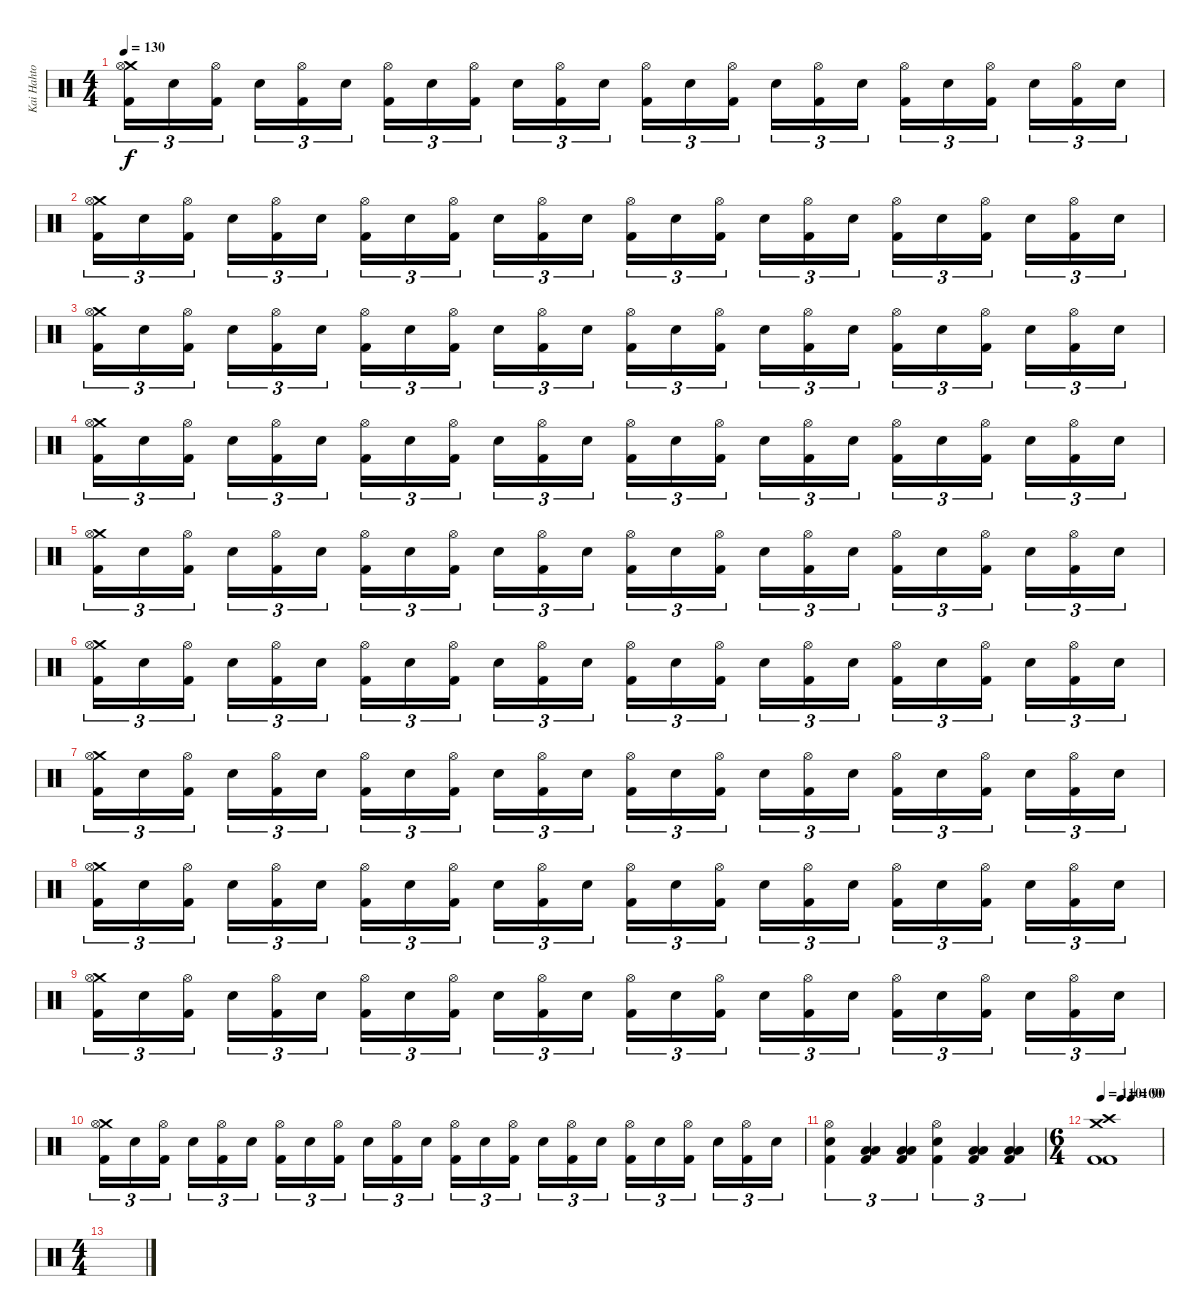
\track ("Kai Hahto" "Kai Hahto") {instrument percussion}
\staff {score}
\articulation defaults
\ts (4 4)
\tempo 130
\clef neutral
\ks c
("Crash medium (hit)" "Hi-Hat (open)" "Kick (hit) 2").16{tu (3 2) dy f} "Snare (hit) 2".16{tu (3 2)} ("Hi-Hat (open)" "Kick (hit) 2").16{tu (3 2) beam splitsecondary} "Snare (hit) 2".16{tu (3 2)} ("Hi-Hat (open)" "Kick (hit) 2").16{tu (3 2)} "Snare (hit) 2".16{tu (3 2)} ("Hi-Hat (open)" "Kick (hit) 2").16{tu (3 2)} "Snare (hit) 2".16{tu (3 2)} ("Hi-Hat (open)" "Kick (hit) 2").16{tu (3 2) beam splitsecondary} "Snare (hit) 2".16{tu (3 2)} ("Hi-Hat (open)" "Kick (hit) 2").16{tu (3 2)} "Snare (hit) 2".16{tu (3 2)} ("Hi-Hat (open)" "Kick (hit) 2").16{tu (3 2)} "Snare (hit) 2".16{tu (3 2)} ("Hi-Hat (open)" "Kick (hit) 2").16{tu (3 2) beam splitsecondary} "Snare (hit) 2".16{tu (3 2)} ("Hi-Hat (open)" "Kick (hit) 2").16{tu (3 2)} "Snare (hit) 2".16{tu (3 2)} ("Hi-Hat (open)" "Kick (hit) 2").16{tu (3 2)} "Snare (hit) 2".16{tu (3 2)} ("Hi-Hat (open)" "Kick (hit) 2").16{tu (3 2) beam splitsecondary} "Snare (hit) 2".16{tu (3 2)} ("Hi-Hat (open)" "Kick (hit) 2").16{tu (3 2)} "Snare (hit) 2".16{tu (3 2)} |
("Crash medium (hit)" "Hi-Hat (open)" "Kick (hit) 2").16{tu (3 2)} "Snare (hit) 2".16{tu (3 2)} ("Hi-Hat (open)" "Kick (hit) 2").16{tu (3 2) beam splitsecondary} "Snare (hit) 2".16{tu (3 2)} ("Hi-Hat (open)" "Kick (hit) 2").16{tu (3 2)} "Snare (hit) 2".16{tu (3 2)} ("Hi-Hat (open)" "Kick (hit) 2").16{tu (3 2)} "Snare (hit) 2".16{tu (3 2)} ("Hi-Hat (open)" "Kick (hit) 2").16{tu (3 2) beam splitsecondary} "Snare (hit) 2".16{tu (3 2)} ("Hi-Hat (open)" "Kick (hit) 2").16{tu (3 2)} "Snare (hit) 2".16{tu (3 2)} ("Hi-Hat (open)" "Kick (hit) 2").16{tu (3 2)} "Snare (hit) 2".16{tu (3 2)} ("Hi-Hat (open)" "Kick (hit) 2").16{tu (3 2) beam splitsecondary} "Snare (hit) 2".16{tu (3 2)} ("Hi-Hat (open)" "Kick (hit) 2").16{tu (3 2)} "Snare (hit) 2".16{tu (3 2)} ("Hi-Hat (open)" "Kick (hit) 2").16{tu (3 2)} "Snare (hit) 2".16{tu (3 2)} ("Hi-Hat (open)" "Kick (hit) 2").16{tu (3 2) beam splitsecondary} "Snare (hit) 2".16{tu (3 2)} ("Hi-Hat (open)" "Kick (hit) 2").16{tu (3 2)} "Snare (hit) 2".16{tu (3 2)} |
("Crash medium (hit)" "Hi-Hat (open)" "Kick (hit) 2").16{tu (3 2)} "Snare (hit) 2".16{tu (3 2)} ("Hi-Hat (open)" "Kick (hit) 2").16{tu (3 2) beam splitsecondary} "Snare (hit) 2".16{tu (3 2)} ("Hi-Hat (open)" "Kick (hit) 2").16{tu (3 2)} "Snare (hit) 2".16{tu (3 2)} ("Hi-Hat (open)" "Kick (hit) 2").16{tu (3 2)} "Snare (hit) 2".16{tu (3 2)} ("Hi-Hat (open)" "Kick (hit) 2").16{tu (3 2) beam splitsecondary} "Snare (hit) 2".16{tu (3 2)} ("Hi-Hat (open)" "Kick (hit) 2").16{tu (3 2)} "Snare (hit) 2".16{tu (3 2)} ("Hi-Hat (open)" "Kick (hit) 2").16{tu (3 2)} "Snare (hit) 2".16{tu (3 2)} ("Hi-Hat (open)" "Kick (hit) 2").16{tu (3 2) beam splitsecondary} "Snare (hit) 2".16{tu (3 2)} ("Hi-Hat (open)" "Kick (hit) 2").16{tu (3 2)} "Snare (hit) 2".16{tu (3 2)} ("Hi-Hat (open)" "Kick (hit) 2").16{tu (3 2)} "Snare (hit) 2".16{tu (3 2)} ("Hi-Hat (open)" "Kick (hit) 2").16{tu (3 2) beam splitsecondary} "Snare (hit) 2".16{tu (3 2)} ("Hi-Hat (open)" "Kick (hit) 2").16{tu (3 2)} "Snare (hit) 2".16{tu (3 2)} |
("Crash medium (hit)" "Hi-Hat (open)" "Kick (hit) 2").16{tu (3 2)} "Snare (hit) 2".16{tu (3 2)} ("Hi-Hat (open)" "Kick (hit) 2").16{tu (3 2) beam splitsecondary} "Snare (hit) 2".16{tu (3 2)} ("Hi-Hat (open)" "Kick (hit) 2").16{tu (3 2)} "Snare (hit) 2".16{tu (3 2)} ("Hi-Hat (open)" "Kick (hit) 2").16{tu (3 2)} "Snare (hit) 2".16{tu (3 2)} ("Hi-Hat (open)" "Kick (hit) 2").16{tu (3 2) beam splitsecondary} "Snare (hit) 2".16{tu (3 2)} ("Hi-Hat (open)" "Kick (hit) 2").16{tu (3 2)} "Snare (hit) 2".16{tu (3 2)} ("Hi-Hat (open)" "Kick (hit) 2").16{tu (3 2)} "Snare (hit) 2".16{tu (3 2)} ("Hi-Hat (open)" "Kick (hit) 2").16{tu (3 2) beam splitsecondary} "Snare (hit) 2".16{tu (3 2)} ("Hi-Hat (open)" "Kick (hit) 2").16{tu (3 2)} "Snare (hit) 2".16{tu (3 2)} ("Hi-Hat (open)" "Kick (hit) 2").16{tu (3 2)} "Snare (hit) 2".16{tu (3 2)} ("Hi-Hat (open)" "Kick (hit) 2").16{tu (3 2) beam splitsecondary} "Snare (hit) 2".16{tu (3 2)} ("Hi-Hat (open)" "Kick (hit) 2").16{tu (3 2)} "Snare (hit) 2".16{tu (3 2)} |
("Crash medium (hit)" "Hi-Hat (open)" "Kick (hit) 2").16{tu (3 2)} "Snare (hit) 2".16{tu (3 2)} ("Hi-Hat (open)" "Kick (hit) 2").16{tu (3 2) beam splitsecondary} "Snare (hit) 2".16{tu (3 2)} ("Hi-Hat (open)" "Kick (hit) 2").16{tu (3 2)} "Snare (hit) 2".16{tu (3 2)} ("Hi-Hat (open)" "Kick (hit) 2").16{tu (3 2)} "Snare (hit) 2".16{tu (3 2)} ("Hi-Hat (open)" "Kick (hit) 2").16{tu (3 2) beam splitsecondary} "Snare (hit) 2".16{tu (3 2)} ("Hi-Hat (open)" "Kick (hit) 2").16{tu (3 2)} "Snare (hit) 2".16{tu (3 2)} ("Hi-Hat (open)" "Kick (hit) 2").16{tu (3 2)} "Snare (hit) 2".16{tu (3 2)} ("Hi-Hat (open)" "Kick (hit) 2").16{tu (3 2) beam splitsecondary} "Snare (hit) 2".16{tu (3 2)} ("Hi-Hat (open)" "Kick (hit) 2").16{tu (3 2)} "Snare (hit) 2".16{tu (3 2)} ("Hi-Hat (open)" "Kick (hit) 2").16{tu (3 2)} "Snare (hit) 2".16{tu (3 2)} ("Hi-Hat (open)" "Kick (hit) 2").16{tu (3 2) beam splitsecondary} "Snare (hit) 2".16{tu (3 2)} ("Hi-Hat (open)" "Kick (hit) 2").16{tu (3 2)} "Snare (hit) 2".16{tu (3 2)} |
("Crash medium (hit)" "Hi-Hat (open)" "Kick (hit) 2").16{tu (3 2)} "Snare (hit) 2".16{tu (3 2)} ("Hi-Hat (open)" "Kick (hit) 2").16{tu (3 2) beam splitsecondary} "Snare (hit) 2".16{tu (3 2)} ("Hi-Hat (open)" "Kick (hit) 2").16{tu (3 2)} "Snare (hit) 2".16{tu (3 2)} ("Hi-Hat (open)" "Kick (hit) 2").16{tu (3 2)} "Snare (hit) 2".16{tu (3 2)} ("Hi-Hat (open)" "Kick (hit) 2").16{tu (3 2) beam splitsecondary} "Snare (hit) 2".16{tu (3 2)} ("Hi-Hat (open)" "Kick (hit) 2").16{tu (3 2)} "Snare (hit) 2".16{tu (3 2)} ("Hi-Hat (open)" "Kick (hit) 2").16{tu (3 2)} "Snare (hit) 2".16{tu (3 2)} ("Hi-Hat (open)" "Kick (hit) 2").16{tu (3 2) beam splitsecondary} "Snare (hit) 2".16{tu (3 2)} ("Hi-Hat (open)" "Kick (hit) 2").16{tu (3 2)} "Snare (hit) 2".16{tu (3 2)} ("Hi-Hat (open)" "Kick (hit) 2").16{tu (3 2)} "Snare (hit) 2".16{tu (3 2)} ("Hi-Hat (open)" "Kick (hit) 2").16{tu (3 2) beam splitsecondary} "Snare (hit) 2".16{tu (3 2)} ("Hi-Hat (open)" "Kick (hit) 2").16{tu (3 2)} "Snare (hit) 2".16{tu (3 2)} |
("Crash medium (hit)" "Hi-Hat (open)" "Kick (hit) 2").16{tu (3 2)} "Snare (hit) 2".16{tu (3 2)} ("Hi-Hat (open)" "Kick (hit) 2").16{tu (3 2) beam splitsecondary} "Snare (hit) 2".16{tu (3 2)} ("Hi-Hat (open)" "Kick (hit) 2").16{tu (3 2)} "Snare (hit) 2".16{tu (3 2)} ("Hi-Hat (open)" "Kick (hit) 2").16{tu (3 2)} "Snare (hit) 2".16{tu (3 2)} ("Hi-Hat (open)" "Kick (hit) 2").16{tu (3 2) beam splitsecondary} "Snare (hit) 2".16{tu (3 2)} ("Hi-Hat (open)" "Kick (hit) 2").16{tu (3 2)} "Snare (hit) 2".16{tu (3 2)} ("Hi-Hat (open)" "Kick (hit) 2").16{tu (3 2)} "Snare (hit) 2".16{tu (3 2)} ("Hi-Hat (open)" "Kick (hit) 2").16{tu (3 2) beam splitsecondary} "Snare (hit) 2".16{tu (3 2)} ("Hi-Hat (open)" "Kick (hit) 2").16{tu (3 2)} "Snare (hit) 2".16{tu (3 2)} ("Hi-Hat (open)" "Kick (hit) 2").16{tu (3 2)} "Snare (hit) 2".16{tu (3 2)} ("Hi-Hat (open)" "Kick (hit) 2").16{tu (3 2) beam splitsecondary} "Snare (hit) 2".16{tu (3 2)} ("Hi-Hat (open)" "Kick (hit) 2").16{tu (3 2)} "Snare (hit) 2".16{tu (3 2)} |
("Crash medium (hit)" "Hi-Hat (open)" "Kick (hit) 2").16{tu (3 2)} "Snare (hit) 2".16{tu (3 2)} ("Hi-Hat (open)" "Kick (hit) 2").16{tu (3 2) beam splitsecondary} "Snare (hit) 2".16{tu (3 2)} ("Hi-Hat (open)" "Kick (hit) 2").16{tu (3 2)} "Snare (hit) 2".16{tu (3 2)} ("Hi-Hat (open)" "Kick (hit) 2").16{tu (3 2)} "Snare (hit) 2".16{tu (3 2)} ("Hi-Hat (open)" "Kick (hit) 2").16{tu (3 2) beam splitsecondary} "Snare (hit) 2".16{tu (3 2)} ("Hi-Hat (open)" "Kick (hit) 2").16{tu (3 2)} "Snare (hit) 2".16{tu (3 2)} ("Hi-Hat (open)" "Kick (hit) 2").16{tu (3 2)} "Snare (hit) 2".16{tu (3 2)} ("Hi-Hat (open)" "Kick (hit) 2").16{tu (3 2) beam splitsecondary} "Snare (hit) 2".16{tu (3 2)} ("Hi-Hat (open)" "Kick (hit) 2").16{tu (3 2)} "Snare (hit) 2".16{tu (3 2)} ("Hi-Hat (open)" "Kick (hit) 2").16{tu (3 2)} "Snare (hit) 2".16{tu (3 2)} ("Hi-Hat (open)" "Kick (hit) 2").16{tu (3 2) beam splitsecondary} "Snare (hit) 2".16{tu (3 2)} ("Hi-Hat (open)" "Kick (hit) 2").16{tu (3 2)} "Snare (hit) 2".16{tu (3 2)} |
("Crash medium (hit)" "Hi-Hat (open)" "Kick (hit) 2").16{tu (3 2)} "Snare (hit) 2".16{tu (3 2)} ("Hi-Hat (open)" "Kick (hit) 2").16{tu (3 2) beam splitsecondary} "Snare (hit) 2".16{tu (3 2)} ("Hi-Hat (open)" "Kick (hit) 2").16{tu (3 2)} "Snare (hit) 2".16{tu (3 2)} ("Hi-Hat (open)" "Kick (hit) 2").16{tu (3 2)} "Snare (hit) 2".16{tu (3 2)} ("Hi-Hat (open)" "Kick (hit) 2").16{tu (3 2) beam splitsecondary} "Snare (hit) 2".16{tu (3 2)} ("Hi-Hat (open)" "Kick (hit) 2").16{tu (3 2)} "Snare (hit) 2".16{tu (3 2)} ("Hi-Hat (open)" "Kick (hit) 2").16{tu (3 2)} "Snare (hit) 2".16{tu (3 2)} ("Hi-Hat (open)" "Kick (hit) 2").16{tu (3 2) beam splitsecondary} "Snare (hit) 2".16{tu (3 2)} ("Hi-Hat (open)" "Kick (hit) 2").16{tu (3 2)} "Snare (hit) 2".16{tu (3 2)} ("Hi-Hat (open)" "Kick (hit) 2").16{tu (3 2)} "Snare (hit) 2".16{tu (3 2)} ("Hi-Hat (open)" "Kick (hit) 2").16{tu (3 2) beam splitsecondary} "Snare (hit) 2".16{tu (3 2)} ("Hi-Hat (open)" "Kick (hit) 2").16{tu (3 2)} "Snare (hit) 2".16{tu (3 2)} |
("Crash medium (hit)" "Hi-Hat (open)" "Kick (hit) 2").16{tu (3 2)} "Snare (hit) 2".16{tu (3 2)} ("Hi-Hat (open)" "Kick (hit) 2").16{tu (3 2) beam splitsecondary} "Snare (hit) 2".16{tu (3 2)} ("Hi-Hat (open)" "Kick (hit) 2").16{tu (3 2)} "Snare (hit) 2".16{tu (3 2)} ("Hi-Hat (open)" "Kick (hit) 2").16{tu (3 2)} "Snare (hit) 2".16{tu (3 2)} ("Hi-Hat (open)" "Kick (hit) 2").16{tu (3 2) beam splitsecondary} "Snare (hit) 2".16{tu (3 2)} ("Hi-Hat (open)" "Kick (hit) 2").16{tu (3 2)} "Snare (hit) 2".16{tu (3 2)} ("Hi-Hat (open)" "Kick (hit) 2").16{tu (3 2)} "Snare (hit) 2".16{tu (3 2)} ("Hi-Hat (open)" "Kick (hit) 2").16{tu (3 2) beam splitsecondary} "Snare (hit) 2".16{tu (3 2)} ("Hi-Hat (open)" "Kick (hit) 2").16{tu (3 2)} "Snare (hit) 2".16{tu (3 2)} ("Hi-Hat (open)" "Kick (hit) 2").16{tu (3 2)} "Snare (hit) 2".16{tu (3 2)} ("Hi-Hat (open)" "Kick (hit) 2").16{tu (3 2) beam splitsecondary} "Snare (hit) 2".16{tu (3 2)} ("Hi-Hat (open)" "Kick (hit) 2").16{tu (3 2)} "Snare (hit) 2".16{tu (3 2)} |
("Hi-Hat (open)" "Snare (hit) 2" "Kick (hit) 2").4{tu (3 2)} ("Low Floor Tom (hit)" "Low Floor Tom (hit)" "Kick (hit) 2").4{tu (3 2)} ("Low Floor Tom (hit)" "Low Floor Tom (hit)" "Kick (hit) 2").4{tu (3 2)} ("Hi-Hat (open)" "Snare (hit) 2" "Kick (hit) 2").4{tu (3 2)} ("Low Floor Tom (hit)" "Low Floor Tom (hit)" "Kick (hit) 2").4{tu (3 2)} ("Low Floor Tom (hit)" "Low Floor Tom (hit)" "Kick (hit) 2").4{tu (3 2)} |
\ts (6 4)
\tempo 110
\tempo (100 0.3333333333333333)
\tempo (90 0.5)
("Crash medium (hit)" "Crash high (hit)" "Kick (hit) 2" "Kick (hit) 2").1 |
\ts (4 4)
